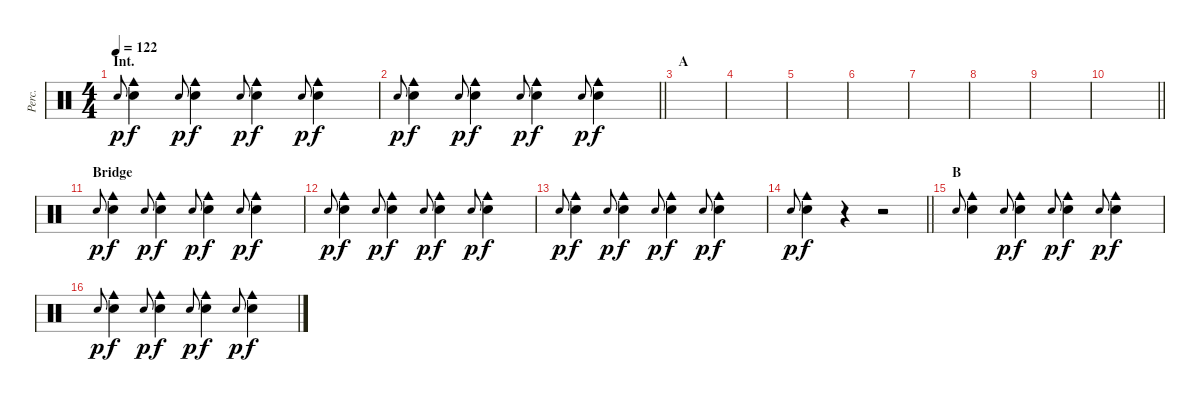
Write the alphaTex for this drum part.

\track ("Perc." "Perc.") {instrument percussion}
\staff {score}
\articulation defaults
\ts (4 4)
\section ("" "Int.")
\tempo 122
\clef neutral
\ks c "Hand Clap (hit)".8{gr onbeat dy p}
("Hand Clap (hit)" "Cowbell medium (hit)").4{dy f} "Hand Clap (hit)".8{gr onbeat dy p} ("Hand Clap (hit)" "Cowbell medium (hit)").4{dy f} "Hand Clap (hit)".8{gr onbeat dy p} ("Hand Clap (hit)" "Cowbell medium (hit)").4{dy f} "Hand Clap (hit)".8{gr onbeat dy p} ("Hand Clap (hit)" "Cowbell medium (hit)").4{dy f} |
\barLineRight lightlight "Hand Clap (hit)".8{gr onbeat dy p}
("Hand Clap (hit)" "Cowbell medium (hit)").4{dy f} "Hand Clap (hit)".8{gr onbeat dy p} ("Hand Clap (hit)" "Cowbell medium (hit)").4{dy f} "Hand Clap (hit)".8{gr onbeat dy p} ("Hand Clap (hit)" "Cowbell medium (hit)").4{dy f} "Hand Clap (hit)".8{gr onbeat dy p} ("Hand Clap (hit)" "Cowbell medium (hit)").4{dy f} |
\section ("" "A")
|
|
|
|
|
|
|
\barLineRight lightlight
|
\section ("" "Bridge")
"Hand Clap (hit)".8{gr onbeat dy p} ("Hand Clap (hit)" "Cowbell medium (hit)").4{dy f} "Hand Clap (hit)".8{gr onbeat dy p} ("Hand Clap (hit)" "Cowbell medium (hit)").4{dy f} "Hand Clap (hit)".8{gr onbeat dy p} ("Hand Clap (hit)" "Cowbell medium (hit)").4{dy f} "Hand Clap (hit)".8{gr onbeat dy p} ("Hand Clap (hit)" "Cowbell medium (hit)").4{dy f} |
"Hand Clap (hit)".8{gr onbeat dy p} ("Hand Clap (hit)" "Cowbell medium (hit)").4{dy f} "Hand Clap (hit)".8{gr onbeat dy p} ("Hand Clap (hit)" "Cowbell medium (hit)").4{dy f} "Hand Clap (hit)".8{gr onbeat dy p} ("Hand Clap (hit)" "Cowbell medium (hit)").4{dy f} "Hand Clap (hit)".8{gr onbeat dy p} ("Hand Clap (hit)" "Cowbell medium (hit)").4{dy f} |
"Hand Clap (hit)".8{gr onbeat dy p} ("Hand Clap (hit)" "Cowbell medium (hit)").4{dy f} "Hand Clap (hit)".8{gr onbeat dy p} ("Hand Clap (hit)" "Cowbell medium (hit)").4{dy f} "Hand Clap (hit)".8{gr onbeat dy p} ("Hand Clap (hit)" "Cowbell medium (hit)").4{dy f} "Hand Clap (hit)".8{gr onbeat dy p} ("Hand Clap (hit)" "Cowbell medium (hit)").4{dy f} |
\barLineRight lightlight "Hand Clap (hit)".8{gr onbeat dy p}
("Hand Clap (hit)" "Cowbell medium (hit)").4{dy f} r.4 r.2 |
\section ("" "B")
"Hand Clap (hit)".8{gr onbeat} ("Hand Clap (hit)" "Cowbell medium (hit)").4 "Hand Clap (hit)".8{gr onbeat dy p} ("Hand Clap (hit)" "Cowbell medium (hit)").4{dy f} "Hand Clap (hit)".8{gr onbeat dy p} ("Hand Clap (hit)" "Cowbell medium (hit)").4{dy f} "Hand Clap (hit)".8{gr onbeat dy p} ("Hand Clap (hit)" "Cowbell medium (hit)").4{dy f} |
"Hand Clap (hit)".8{gr onbeat dy p} ("Hand Clap (hit)" "Cowbell medium (hit)").4{dy f} "Hand Clap (hit)".8{gr onbeat dy p} ("Hand Clap (hit)" "Cowbell medium (hit)").4{dy f} "Hand Clap (hit)".8{gr onbeat dy p} ("Hand Clap (hit)" "Cowbell medium (hit)").4{dy f} "Hand Clap (hit)".8{gr onbeat dy p} ("Hand Clap (hit)" "Cowbell medium (hit)").4{dy f}
